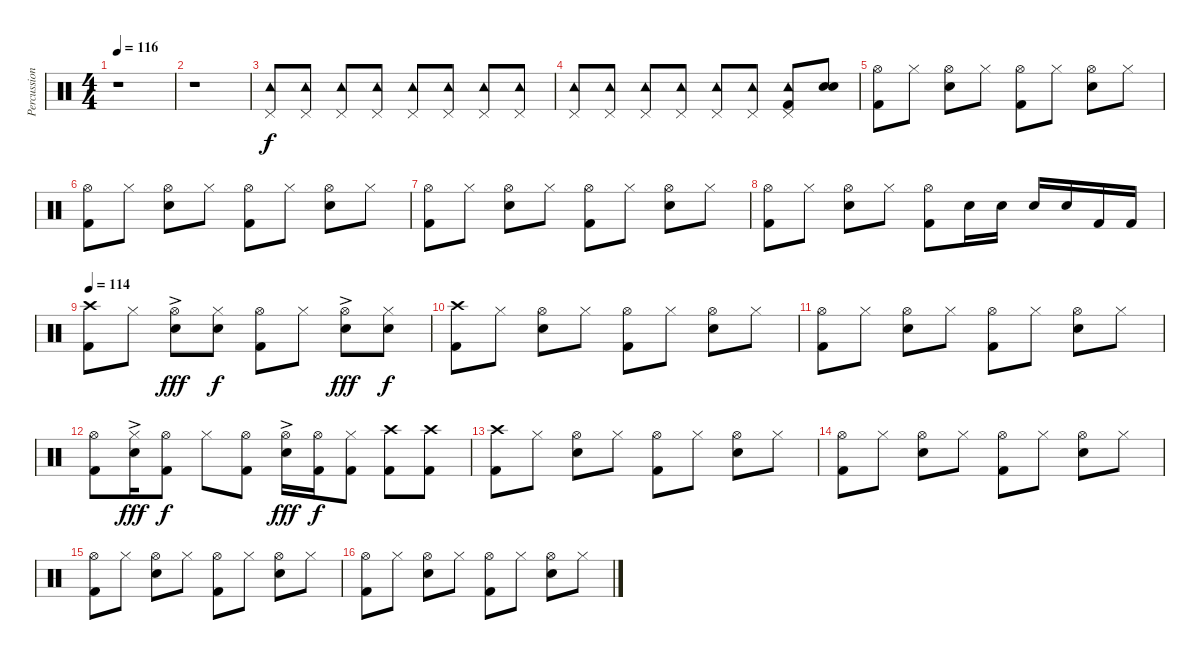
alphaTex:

\track ("Percussion" "Percussion") {instrument percussion}
\staff {score}
\articulation defaults
\ts (4 4)
\tempo 116
\tempo 112
\tempo 116
\clef neutral
\ks c
r.1{dy f} |
r.1 |
("Pedal Hi-Hat (hit)" "Tambourine (hit)").8 ("Pedal Hi-Hat (hit)" "Tambourine (hit)").8 ("Pedal Hi-Hat (hit)" "Tambourine (hit)").8 ("Pedal Hi-Hat (hit)" "Tambourine (hit)").8 ("Pedal Hi-Hat (hit)" "Tambourine (hit)").8 ("Pedal Hi-Hat (hit)" "Tambourine (hit)").8 ("Pedal Hi-Hat (hit)" "Tambourine (hit)").8 ("Pedal Hi-Hat (hit)" "Tambourine (hit)").8 |
("Pedal Hi-Hat (hit)" "Tambourine (hit)").8 ("Pedal Hi-Hat (hit)" "Tambourine (hit)").8 ("Pedal Hi-Hat (hit)" "Tambourine (hit)").8 ("Pedal Hi-Hat (hit)" "Tambourine (hit)").8 ("Pedal Hi-Hat (hit)" "Tambourine (hit)").8 ("Pedal Hi-Hat (hit)" "Tambourine (hit)").8 ("Pedal Hi-Hat (hit)" "Tambourine (hit)" "Kick (hit) 2").8 ("Snare (hit) 2" "Snare (hit) 2").8 |
("Hi-Hat (open)" "Kick (hit) 2").8 "Hi-Hat (closed)".8 ("Hi-Hat (open)" "Snare (hit) 2").8 "Hi-Hat (closed)".8 ("Hi-Hat (open)" "Kick (hit) 2").8 "Hi-Hat (closed)".8 ("Hi-Hat (open)" "Snare (hit) 2").8 "Hi-Hat (closed)".8 |
("Hi-Hat (open)" "Kick (hit) 2").8 "Hi-Hat (closed)".8 ("Hi-Hat (open)" "Snare (hit) 2").8 "Hi-Hat (closed)".8 ("Hi-Hat (open)" "Kick (hit) 2").8 "Hi-Hat (closed)".8 ("Hi-Hat (open)" "Snare (hit) 2").8 "Hi-Hat (closed)".8 |
("Hi-Hat (open)" "Kick (hit) 2").8 "Hi-Hat (closed)".8 ("Hi-Hat (open)" "Snare (hit) 2").8 "Hi-Hat (closed)".8 ("Hi-Hat (open)" "Kick (hit) 2").8 "Hi-Hat (closed)".8 ("Hi-Hat (open)" "Snare (hit) 2").8 "Hi-Hat (closed)".8 |
("Hi-Hat (open)" "Kick (hit) 2").8 "Hi-Hat (closed)".8 ("Hi-Hat (open)" "Snare (hit) 2").8 "Hi-Hat (closed)".8 ("Hi-Hat (open)" "Kick (hit) 2").8 "Snare (hit) 2".16 "Snare (hit) 2".16 "Snare (hit) 2".16 "Snare (hit) 2".16 "Kick (hit) 2".16 "Kick (hit) 2".16 |
\tempo 116
\tempo 114
("Crash high (hit)" "Kick (hit) 2").8 "Hi-Hat (closed)".8 ("Hi-Hat (open)" "Snare (hit) 2"{ac}).8{dy fff} ("Hi-Hat (closed)" "Snare (hit) 2").8{dy f} ("Hi-Hat (open)" "Kick (hit) 2").8 "Hi-Hat (closed)".8 ("Hi-Hat (open)" "Snare (hit) 2"{ac}).8{dy fff} ("Hi-Hat (closed)" "Snare (hit) 2").8{dy f} |
("Crash high (hit)" "Kick (hit) 2").8 "Hi-Hat (closed)".8 ("Hi-Hat (open)" "Snare (hit) 2").8 "Hi-Hat (closed)".8 ("Hi-Hat (open)" "Kick (hit) 2").8 "Hi-Hat (closed)".8 ("Hi-Hat (open)" "Snare (hit) 2").8 "Hi-Hat (closed)".8 |
("Hi-Hat (open)" "Kick (hit) 2").8 "Hi-Hat (closed)".8 ("Hi-Hat (open)" "Snare (hit) 2").8 "Hi-Hat (closed)".8 ("Hi-Hat (open)" "Kick (hit) 2").8 "Hi-Hat (closed)".8 ("Hi-Hat (open)" "Snare (hit) 2").8 "Hi-Hat (closed)".8 |
("Hi-Hat (open)" "Kick (hit) 2").8 ("Hi-Hat (closed)" "Snare (hit) 2"{ac}).16{dy fff} ("Hi-Hat (open)" "Kick (hit) 2").8{dy f} "Hi-Hat (closed)".8 ("Hi-Hat (open)" "Kick (hit) 2").8 ("Hi-Hat (open)" "Snare (hit) 2"{ac}).16{dy fff} ("Hi-Hat (open)" "Kick (hit) 2").16{dy f} ("Hi-Hat (closed)" "Kick (hit) 2").8 ("Crash high (hit)" "Kick (hit) 2").8 ("Crash high (hit)" "Kick (hit) 2").8 |
("Crash high (hit)" "Kick (hit) 2").8 "Hi-Hat (closed)".8 ("Hi-Hat (open)" "Snare (hit) 2").8 "Hi-Hat (closed)".8 ("Hi-Hat (open)" "Kick (hit) 2").8 "Hi-Hat (closed)".8 ("Hi-Hat (open)" "Snare (hit) 2").8 "Hi-Hat (closed)".8 |
("Hi-Hat (open)" "Kick (hit) 2").8 "Hi-Hat (closed)".8 ("Hi-Hat (open)" "Snare (hit) 2").8 "Hi-Hat (closed)".8 ("Hi-Hat (open)" "Kick (hit) 2").8 "Hi-Hat (closed)".8 ("Hi-Hat (open)" "Snare (hit) 2").8 "Hi-Hat (closed)".8 |
("Hi-Hat (open)" "Kick (hit) 2").8 "Hi-Hat (closed)".8 ("Hi-Hat (open)" "Snare (hit) 2").8 "Hi-Hat (closed)".8 ("Hi-Hat (open)" "Kick (hit) 2").8 "Hi-Hat (closed)".8 ("Hi-Hat (open)" "Snare (hit) 2").8 "Hi-Hat (closed)".8 |
("Hi-Hat (open)" "Kick (hit) 2").8 "Hi-Hat (closed)".8 ("Hi-Hat (open)" "Snare (hit) 2").8 "Hi-Hat (closed)".8 ("Hi-Hat (open)" "Kick (hit) 2").8 "Hi-Hat (closed)".8 ("Hi-Hat (open)" "Snare (hit) 2").8 "Hi-Hat (closed)".8
